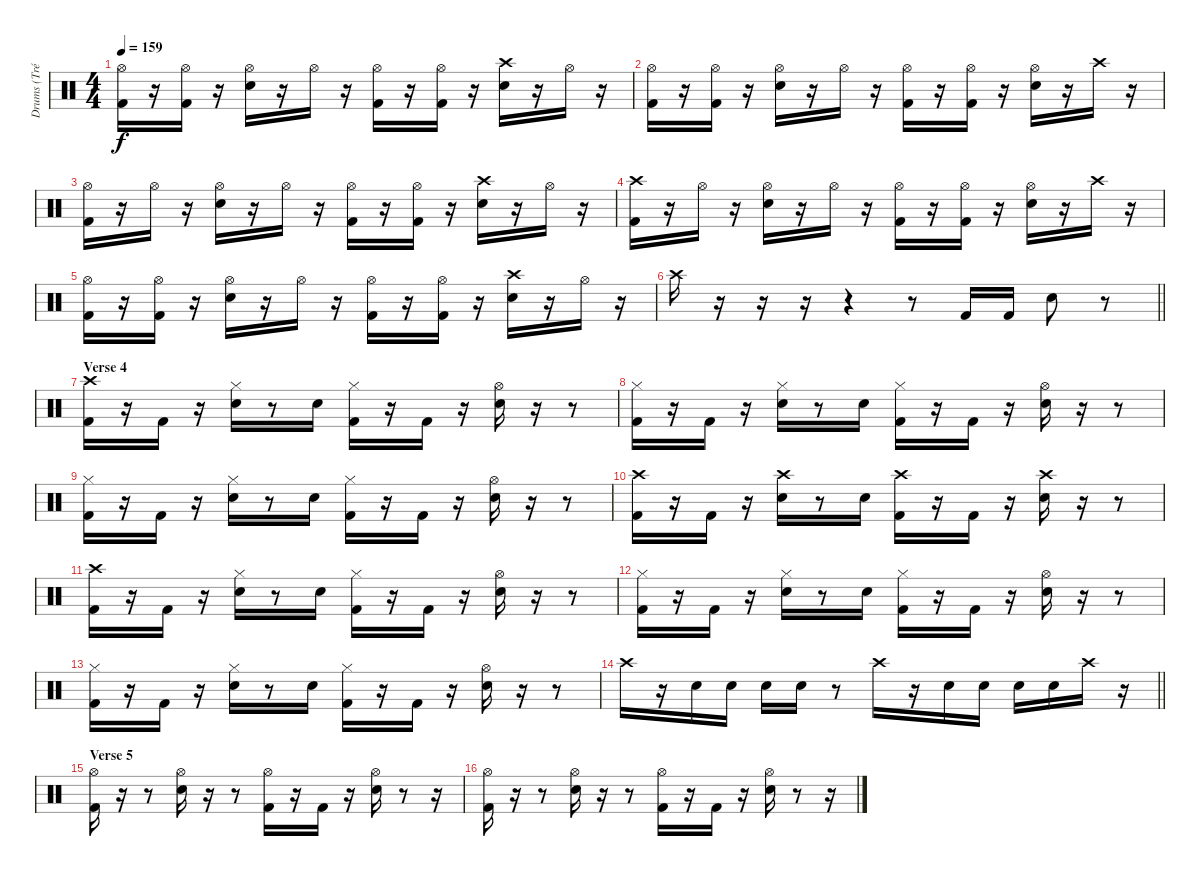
\track ("Drums (Tré Cool)" "Drums (Tré") {instrument percussion}
\staff {score}
\articulation defaults
\ts (4 4)
\tempo 159
\clef neutral
\ks c
("Hi-Hat (open)" "Kick (hit) 2").16{dy f} r.16 ("Hi-Hat (open)" "Kick (hit) 2").16 r.16 ("Hi-Hat (open)" "Electric Snare (hit)").16 r.16 "Hi-Hat (open)".16 r.16 ("Hi-Hat (open)" "Kick (hit) 2").16 r.16 ("Hi-Hat (open)" "Kick (hit) 2").16 r.16 ("Crash high (hit)" "Electric Snare (hit)").16 r.16 "Hi-Hat (open)".16 r.16 |
("Hi-Hat (open)" "Kick (hit) 2").16 r.16 ("Hi-Hat (open)" "Kick (hit) 2").16 r.16 ("Hi-Hat (open)" "Electric Snare (hit)").16 r.16 "Hi-Hat (open)".16 r.16 ("Hi-Hat (open)" "Kick (hit) 2").16 r.16 ("Hi-Hat (open)" "Kick (hit) 2").16 r.16 ("Hi-Hat (open)" "Electric Snare (hit)").16 r.16 "Crash high (hit)".16 r.16 |
("Hi-Hat (open)" "Kick (hit) 2").16 r.16 "Hi-Hat (open)".16 r.16 ("Hi-Hat (open)" "Electric Snare (hit)").16 r.16 "Hi-Hat (open)".16 r.16 ("Hi-Hat (open)" "Kick (hit) 2").16 r.16 ("Hi-Hat (open)" "Kick (hit) 2").16 r.16 ("Crash high (hit)" "Electric Snare (hit)").16 r.16 "Hi-Hat (open)".16 r.16 |
("Crash high (hit)" "Kick (hit) 2").16 r.16 "Hi-Hat (open)".16 r.16 ("Hi-Hat (open)" "Electric Snare (hit)").16 r.16 "Hi-Hat (open)".16 r.16 ("Hi-Hat (open)" "Kick (hit) 2").16 r.16 ("Hi-Hat (open)" "Kick (hit) 2").16 r.16 ("Hi-Hat (open)" "Electric Snare (hit)").16 r.16 "Crash high (hit)".16 r.16 |
("Hi-Hat (open)" "Kick (hit) 2").16 r.16 ("Hi-Hat (open)" "Kick (hit) 2").16 r.16 ("Hi-Hat (open)" "Electric Snare (hit)").16 r.16 "Hi-Hat (open)".16 r.16 ("Hi-Hat (open)" "Kick (hit) 2").16 r.16 ("Hi-Hat (open)" "Kick (hit) 2").16 r.16 ("Crash high (hit)" "Electric Snare (hit)").16 r.16 "Hi-Hat (open)".16 r.16 |
\barLineRight lightlight "Crash high (hit)".16
r.16 r.16 r.16 r.4 r.8 "Kick (hit) 2".16 "Kick (hit) 2".16 "Electric Snare (hit)".8 r.8 |
\section ("" "Verse 4")
("Crash high (hit)" "Kick (hit) 2").16 r.16 "Kick (hit) 2".16 r.16 ("Hi-Hat (closed)" "Electric Snare (hit)").16 r.8 "Electric Snare (hit)".16 ("Hi-Hat (closed)" "Kick (hit) 2").16 r.16 "Kick (hit) 2".16 r.16 ("Hi-Hat (open)" "Electric Snare (hit)").16 r.16 r.8 |
("Hi-Hat (closed)" "Kick (hit) 2").16 r.16 "Kick (hit) 2".16 r.16 ("Hi-Hat (closed)" "Electric Snare (hit)").16 r.8 "Electric Snare (hit)".16 ("Hi-Hat (closed)" "Kick (hit) 2").16 r.16 "Kick (hit) 2".16 r.16 ("Hi-Hat (open)" "Electric Snare (hit)").16 r.16 r.8 |
("Hi-Hat (closed)" "Kick (hit) 2").16 r.16 "Kick (hit) 2".16 r.16 ("Hi-Hat (closed)" "Electric Snare (hit)").16 r.8 "Electric Snare (hit)".16 ("Hi-Hat (closed)" "Kick (hit) 2").16 r.16 "Kick (hit) 2".16 r.16 ("Hi-Hat (open)" "Electric Snare (hit)").16 r.16 r.8 |
("Crash high (hit)" "Kick (hit) 2").16 r.16 "Kick (hit) 2".16 r.16 ("Crash high (hit)" "Electric Snare (hit)").16 r.8 "Electric Snare (hit)".16 ("Crash high (hit)" "Kick (hit) 2").16 r.16 "Kick (hit) 2".16 r.16 ("Crash high (hit)" "Electric Snare (hit)").16 r.16 r.8 |
("Crash high (hit)" "Kick (hit) 2").16 r.16 "Kick (hit) 2".16 r.16 ("Hi-Hat (closed)" "Electric Snare (hit)").16 r.8 "Electric Snare (hit)".16 ("Hi-Hat (closed)" "Kick (hit) 2").16 r.16 "Kick (hit) 2".16 r.16 ("Hi-Hat (open)" "Electric Snare (hit)").16 r.16 r.8 |
("Hi-Hat (closed)" "Kick (hit) 2").16 r.16 "Kick (hit) 2".16 r.16 ("Hi-Hat (closed)" "Electric Snare (hit)").16 r.8 "Electric Snare (hit)".16 ("Hi-Hat (closed)" "Kick (hit) 2").16 r.16 "Kick (hit) 2".16 r.16 ("Hi-Hat (open)" "Electric Snare (hit)").16 r.16 r.8 |
("Hi-Hat (closed)" "Kick (hit) 2").16 r.16 "Kick (hit) 2".16 r.16 ("Hi-Hat (closed)" "Electric Snare (hit)").16 r.8 "Electric Snare (hit)".16 ("Hi-Hat (closed)" "Kick (hit) 2").16 r.16 "Kick (hit) 2".16 r.16 ("Hi-Hat (open)" "Electric Snare (hit)").16 r.16 r.8 |
\barLineRight lightlight "Crash high (hit)".16
r.16 "Electric Snare (hit)".16 "Electric Snare (hit)".16 "Electric Snare (hit)".16 "Electric Snare (hit)".16 r.8 "Crash high (hit)".16 r.16 "Electric Snare (hit)".16 "Electric Snare (hit)".16 "Electric Snare (hit)".16 "Electric Snare (hit)".16 "Crash high (hit)".16 r.16 |
\section ("" "Verse 5")
("Hi-Hat (open)" "Kick (hit) 2").16 r.16 r.8 ("Hi-Hat (open)" "Electric Snare (hit)").16 r.16 r.8 ("Hi-Hat (open)" "Kick (hit) 2").16 r.16 "Kick (hit) 2".16 r.16 ("Hi-Hat (open)" "Electric Snare (hit)").16 r.8 r.16 |
("Hi-Hat (open)" "Kick (hit) 2").16 r.16 r.8 ("Hi-Hat (open)" "Electric Snare (hit)").16 r.16 r.8 ("Hi-Hat (open)" "Kick (hit) 2").16 r.16 "Kick (hit) 2".16 r.16 ("Hi-Hat (open)" "Electric Snare (hit)").16 r.8 r.16
